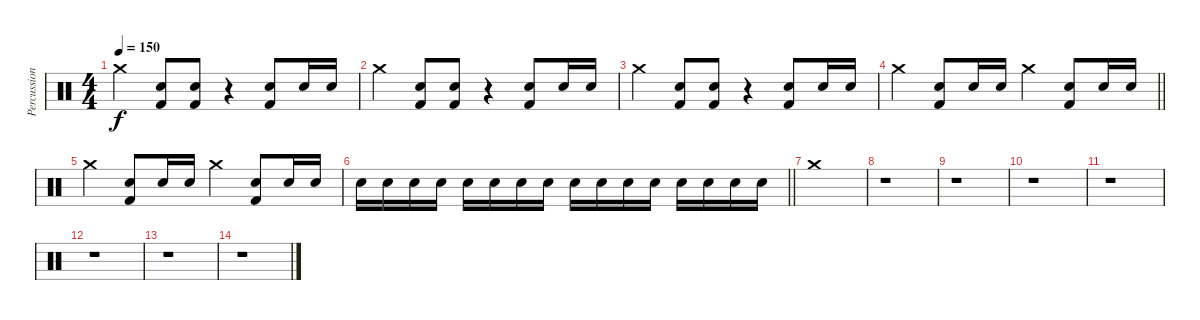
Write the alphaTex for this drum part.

\track ("Percussion" "Percussion") {instrument percussion}
\staff {score}
\articulation defaults
\ts (4 4)
\tempo 150
\clef neutral
\ks c "Crash medium (hit)".4{dy f}
("Snare (hit) 2" "Kick (hit) 2").8 ("Snare (hit) 2" "Kick (hit) 2").8 r.4 ("Snare (hit) 2" "Kick (hit) 2").8 "Snare (hit) 2".16 "Snare (hit) 2".16 |
"Crash medium (hit)".4 ("Snare (hit) 2" "Kick (hit) 2").8 ("Snare (hit) 2" "Kick (hit) 2").8 r.4 ("Snare (hit) 2" "Kick (hit) 2").8 "Snare (hit) 2".16 "Snare (hit) 2".16 |
"Crash medium (hit)".4 ("Snare (hit) 2" "Kick (hit) 2").8 ("Snare (hit) 2" "Kick (hit) 2").8 r.4 ("Snare (hit) 2" "Kick (hit) 2").8 "Snare (hit) 2".16 "Snare (hit) 2".16 |
\barLineRight lightlight "Crash medium (hit)".4
("Snare (hit) 2" "Kick (hit) 2").8 "Snare (hit) 2".16 "Snare (hit) 2".16 "Crash medium (hit)".4 ("Snare (hit) 2" "Kick (hit) 2").8 "Snare (hit) 2".16 "Snare (hit) 2".16 |
"Crash medium (hit)".4 ("Snare (hit) 2" "Kick (hit) 2").8 "Snare (hit) 2".16 "Snare (hit) 2".16 "Crash medium (hit)".4 ("Snare (hit) 2" "Kick (hit) 2").8 "Snare (hit) 2".16 "Snare (hit) 2".16 |
\barLineRight lightlight "Electric Snare (hit)".16 "Electric Snare (hit)".16 "Electric Snare (hit)".16 "Electric Snare (hit)".16 "Electric Snare (hit)".16 "Electric Snare (hit)".16 "Electric Snare (hit)".16 "Electric Snare (hit)".16 "Snare (hit) 2".16 "Snare (hit) 2".16 "Snare (hit) 2".16 "Snare (hit) 2".16 "Snare (hit) 2".16 "Snare (hit) 2".16 "Snare (hit) 2".16 "Snare (hit) 2".16
|
"Crash medium (hit)".1 |
r.1 |
r.1 |
r.1 |
r.1 |
r.1 |
r.1 |
r.1
